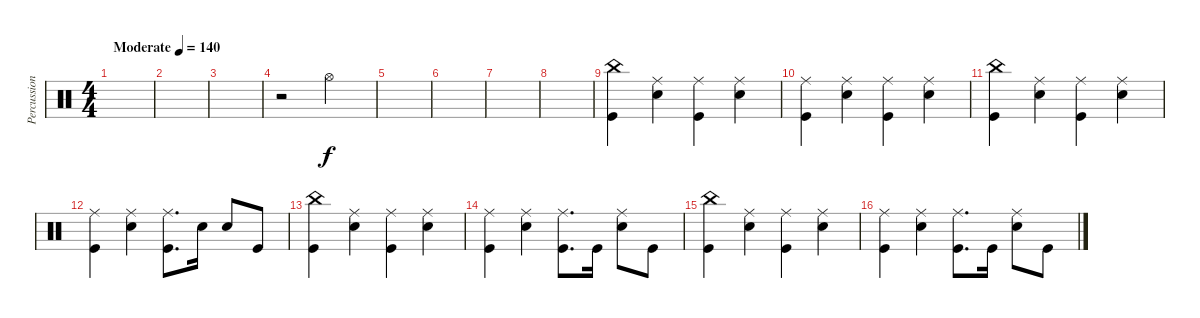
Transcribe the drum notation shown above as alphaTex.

\track ("Percussion" "Percussion") {instrument percussion}
\staff {score}
\articulation defaults
\ts (4 4)
\tempo (140 "Moderate")
\clef neutral
\ks c
|
|
|
r.2 "Hi-Hat (open)".2 |
|
|
|
|
("China (hit)" "Kick (hit)").4 ("Ride (middle)" "Electric Snare (hit)").4 ("Ride (middle)" "Kick (hit)").4 ("Ride (middle)" "Electric Snare (hit)").4 |
("Ride (middle)" "Kick (hit)").4 ("Ride (middle)" "Electric Snare (hit)").4 ("Ride (middle)" "Kick (hit)").4 ("Ride (middle)" "Electric Snare (hit)").4 |
("China (hit)" "Kick (hit)").4 ("Ride (middle)" "Electric Snare (hit)").4 ("Ride (middle)" "Kick (hit)").4 ("Ride (middle)" "Electric Snare (hit)").4 |
("Ride (middle)" "Kick (hit)").4 ("Ride (middle)" "Electric Snare (hit)").4 ("Ride (middle)" "Kick (hit)").8{d} "Electric Snare (hit)".16 "Electric Snare (hit)".8 "Kick (hit)".8 |
("China (hit)" "Kick (hit)").4 ("Ride (middle)" "Electric Snare (hit)").4 ("Ride (middle)" "Kick (hit)").4 ("Ride (middle)" "Electric Snare (hit)").4 |
("Ride (middle)" "Kick (hit)").4 ("Ride (middle)" "Electric Snare (hit)").4 ("Ride (middle)" "Kick (hit)").8{d} "Kick (hit)".16 ("Ride (middle)" "Electric Snare (hit)").8 "Kick (hit)".8 |
("China (hit)" "Kick (hit)").4 ("Ride (middle)" "Electric Snare (hit)").4 ("Ride (middle)" "Kick (hit)").4 ("Ride (middle)" "Electric Snare (hit)").4 |
("Ride (middle)" "Kick (hit)").4 ("Ride (middle)" "Electric Snare (hit)").4 ("Ride (middle)" "Kick (hit)").8{d} "Kick (hit)".16 ("Ride (middle)" "Electric Snare (hit)").8 "Kick (hit)".8
